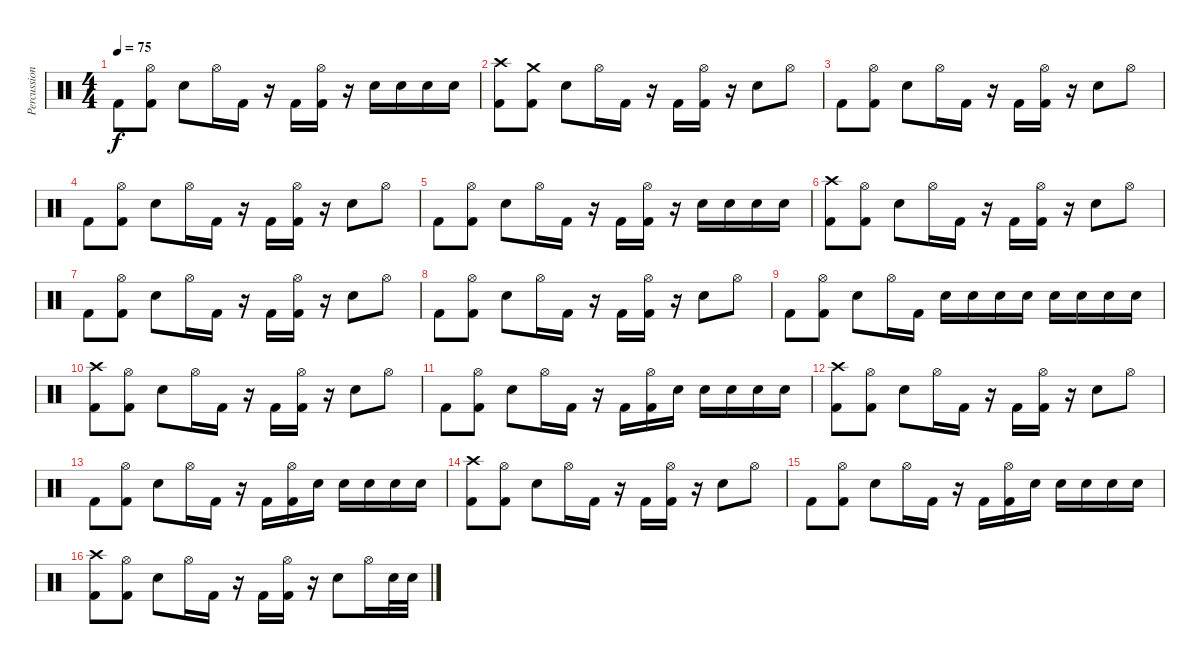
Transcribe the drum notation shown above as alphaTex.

\track ("Percussion" "Percussion") {instrument percussion}
\staff {score}
\articulation defaults
\ts (4 4)
\tempo 75
\clef neutral
\ks c "Kick (hit) 2".8{dy f}
("Hi-Hat (open)" "Kick (hit) 2").8 "Electric Snare (hit)".8 "Hi-Hat (open)".16 "Kick (hit) 2".16 r.16 "Kick (hit) 2".16 ("Hi-Hat (open)" "Kick (hit) 2").16 r.16 "Electric Snare (hit)".16 "Electric Snare (hit)".16 "Electric Snare (hit)".16 "Electric Snare (hit)".16 |
("Crash high (hit)" "Kick (hit) 2").8 ("Crash medium (hit)" "Kick (hit) 2").8 "Electric Snare (hit)".8 "Hi-Hat (open)".16 "Kick (hit) 2".16 r.16 "Kick (hit) 2".16 ("Hi-Hat (open)" "Kick (hit) 2").16 r.16 "Electric Snare (hit)".8 "Hi-Hat (open)".8 |
"Kick (hit) 2".8 ("Hi-Hat (open)" "Kick (hit) 2").8 "Electric Snare (hit)".8 "Hi-Hat (open)".16 "Kick (hit) 2".16 r.16 "Kick (hit) 2".16 ("Hi-Hat (open)" "Kick (hit) 2").16 r.16 "Electric Snare (hit)".8 "Hi-Hat (open)".8 |
"Kick (hit) 2".8 ("Hi-Hat (open)" "Kick (hit) 2").8 "Electric Snare (hit)".8 "Hi-Hat (open)".16 "Kick (hit) 2".16 r.16 "Kick (hit) 2".16 ("Hi-Hat (open)" "Kick (hit) 2").16 r.16 "Electric Snare (hit)".8 "Hi-Hat (open)".8 |
"Kick (hit) 2".8 ("Hi-Hat (open)" "Kick (hit) 2").8 "Electric Snare (hit)".8 "Hi-Hat (open)".16 "Kick (hit) 2".16 r.16 "Kick (hit) 2".16 ("Hi-Hat (open)" "Kick (hit) 2").16 r.16 "Electric Snare (hit)".16 "Electric Snare (hit)".16 "Electric Snare (hit)".16 "Electric Snare (hit)".16 |
("Crash high (hit)" "Kick (hit) 2").8 ("Hi-Hat (open)" "Kick (hit) 2").8 "Electric Snare (hit)".8 "Hi-Hat (open)".16 "Kick (hit) 2".16 r.16 "Kick (hit) 2".16 ("Hi-Hat (open)" "Kick (hit) 2").16 r.16 "Electric Snare (hit)".8 "Hi-Hat (open)".8 |
"Kick (hit) 2".8 ("Hi-Hat (open)" "Kick (hit) 2").8 "Electric Snare (hit)".8 "Hi-Hat (open)".16 "Kick (hit) 2".16 r.16 "Kick (hit) 2".16 ("Hi-Hat (open)" "Kick (hit) 2").16 r.16 "Electric Snare (hit)".8 "Hi-Hat (open)".8 |
"Kick (hit) 2".8 ("Hi-Hat (open)" "Kick (hit) 2").8 "Electric Snare (hit)".8 "Hi-Hat (open)".16 "Kick (hit) 2".16 r.16 "Kick (hit) 2".16 ("Hi-Hat (open)" "Kick (hit) 2").16 r.16 "Electric Snare (hit)".8 "Hi-Hat (open)".8 |
"Kick (hit) 2".8 ("Hi-Hat (open)" "Kick (hit) 2").8 "Electric Snare (hit)".8 "Hi-Hat (open)".16 "Kick (hit) 2".16 "Electric Snare (hit)".16 "Electric Snare (hit)".16 "Electric Snare (hit)".16 "Electric Snare (hit)".16 "Electric Snare (hit)".16 "Electric Snare (hit)".16 "Electric Snare (hit)".16 "Electric Snare (hit)".16 |
("Crash high (hit)" "Kick (hit) 2").8 ("Hi-Hat (open)" "Kick (hit) 2").8 "Electric Snare (hit)".8 "Hi-Hat (open)".16 "Kick (hit) 2".16 r.16 "Kick (hit) 2".16 ("Hi-Hat (open)" "Kick (hit) 2").16 r.16 "Electric Snare (hit)".8 "Hi-Hat (open)".8 |
"Kick (hit) 2".8 ("Hi-Hat (open)" "Kick (hit) 2").8 "Electric Snare (hit)".8 "Hi-Hat (open)".16 "Kick (hit) 2".16 r.16 "Kick (hit) 2".16 ("Hi-Hat (open)" "Kick (hit) 2").16 "Electric Snare (hit)".16 "Electric Snare (hit)".16 "Electric Snare (hit)".16 "Electric Snare (hit)".16 "Electric Snare (hit)".16 |
("Crash high (hit)" "Kick (hit) 2").8 ("Hi-Hat (open)" "Kick (hit) 2").8 "Electric Snare (hit)".8 "Hi-Hat (open)".16 "Kick (hit) 2".16 r.16 "Kick (hit) 2".16 ("Hi-Hat (open)" "Kick (hit) 2").16 r.16 "Electric Snare (hit)".8 "Hi-Hat (open)".8 |
"Kick (hit) 2".8 ("Hi-Hat (open)" "Kick (hit) 2").8 "Electric Snare (hit)".8 "Hi-Hat (open)".16 "Kick (hit) 2".16 r.16 "Kick (hit) 2".16 ("Hi-Hat (open)" "Kick (hit) 2").16 "Electric Snare (hit)".16 "Electric Snare (hit)".16 "Electric Snare (hit)".16 "Electric Snare (hit)".16 "Electric Snare (hit)".16 |
("Crash high (hit)" "Kick (hit) 2").8 ("Hi-Hat (open)" "Kick (hit) 2").8 "Electric Snare (hit)".8 "Hi-Hat (open)".16 "Kick (hit) 2".16 r.16 "Kick (hit) 2".16 ("Hi-Hat (open)" "Kick (hit) 2").16 r.16 "Electric Snare (hit)".8 "Hi-Hat (open)".8 |
"Kick (hit) 2".8 ("Hi-Hat (open)" "Kick (hit) 2").8 "Electric Snare (hit)".8 "Hi-Hat (open)".16 "Kick (hit) 2".16 r.16 "Kick (hit) 2".16 ("Hi-Hat (open)" "Kick (hit) 2").16 "Electric Snare (hit)".16 "Electric Snare (hit)".16 "Electric Snare (hit)".16 "Electric Snare (hit)".16 "Electric Snare (hit)".16 |
("Crash high (hit)" "Kick (hit) 2").8 ("Hi-Hat (open)" "Kick (hit) 2").8 "Electric Snare (hit)".8 "Hi-Hat (open)".16 "Kick (hit) 2".16 r.16 "Kick (hit) 2".16 ("Hi-Hat (open)" "Kick (hit) 2").16 r.16 "Electric Snare (hit)".8 "Hi-Hat (open)".16 "Electric Snare (hit)".32 "Electric Snare (hit)".32
